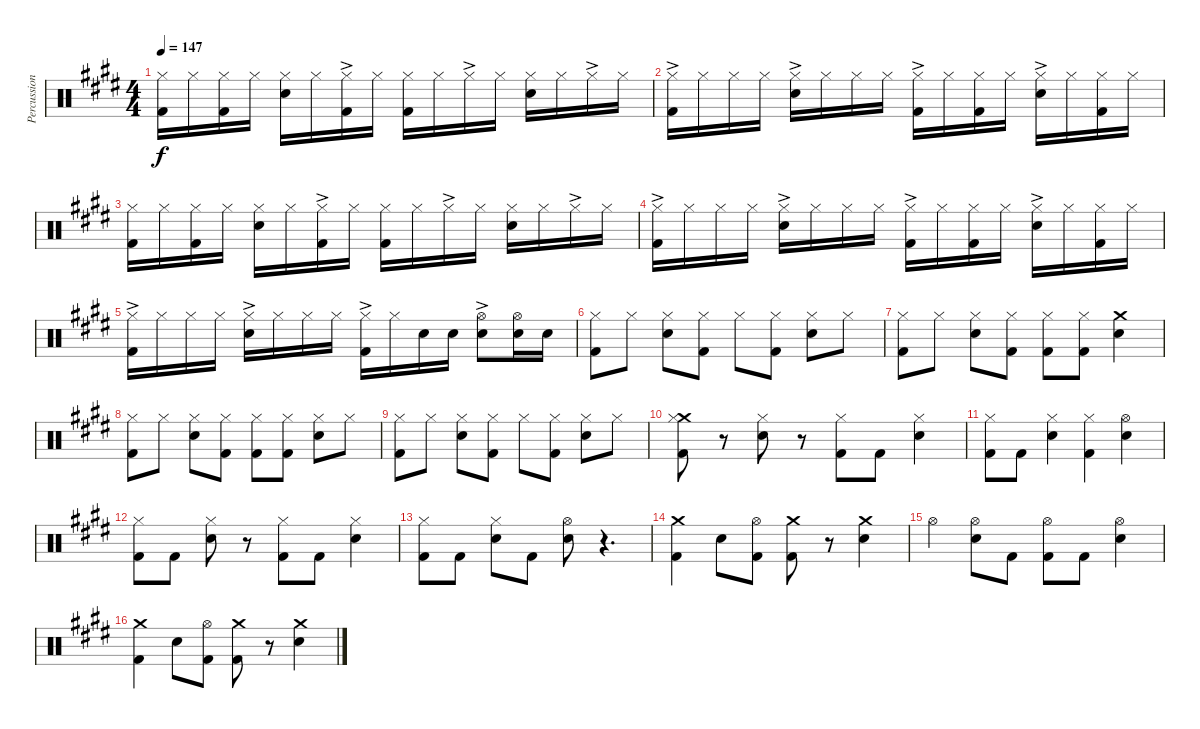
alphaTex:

\track ("Percussion" "Percussion") {instrument percussion}
\staff {score}
\articulation defaults
\ts (4 4)
\tempo 147
\clef neutral
\ks e
("Hi-Hat (closed)" "Kick (hit) 2").16{dy f} "Hi-Hat (closed)".16 ("Hi-Hat (closed)" "Kick (hit) 2").16 "Hi-Hat (closed)".16 ("Hi-Hat (closed)" "Electric Snare (hit)").16 "Hi-Hat (closed)".16 ("Hi-Hat (closed)"{ac} "Kick (hit) 2").16 "Hi-Hat (closed)".16 ("Hi-Hat (closed)" "Kick (hit) 2").16 "Hi-Hat (closed)".16 "Hi-Hat (closed)"{ac}.16 "Hi-Hat (closed)".16 ("Hi-Hat (closed)" "Electric Snare (hit)").16 "Hi-Hat (closed)".16 "Hi-Hat (closed)"{ac}.16 "Hi-Hat (closed)".16 |
("Hi-Hat (closed)"{ac} "Kick (hit) 2").16 "Hi-Hat (closed)".16 "Hi-Hat (closed)".16 "Hi-Hat (closed)".16 ("Hi-Hat (closed)"{ac} "Electric Snare (hit)").16 "Hi-Hat (closed)".16 "Hi-Hat (closed)".16 "Hi-Hat (closed)".16 ("Hi-Hat (closed)"{ac} "Kick (hit) 2").16 "Hi-Hat (closed)".16 ("Hi-Hat (closed)" "Kick (hit) 2").16 "Hi-Hat (closed)".16 ("Hi-Hat (closed)"{ac} "Electric Snare (hit)").16 "Hi-Hat (closed)".16 ("Hi-Hat (closed)" "Kick (hit) 2").16 "Hi-Hat (closed)".16 |
("Hi-Hat (closed)" "Kick (hit) 2").16 "Hi-Hat (closed)".16 ("Hi-Hat (closed)" "Kick (hit) 2").16 "Hi-Hat (closed)".16 ("Hi-Hat (closed)" "Electric Snare (hit)").16 "Hi-Hat (closed)".16 ("Hi-Hat (closed)"{ac} "Kick (hit) 2").16 "Hi-Hat (closed)".16 ("Hi-Hat (closed)" "Kick (hit) 2").16 "Hi-Hat (closed)".16 "Hi-Hat (closed)"{ac}.16 "Hi-Hat (closed)".16 ("Hi-Hat (closed)" "Electric Snare (hit)").16 "Hi-Hat (closed)".16 "Hi-Hat (closed)"{ac}.16 "Hi-Hat (closed)".16 |
("Hi-Hat (closed)"{ac} "Kick (hit) 2").16 "Hi-Hat (closed)".16 "Hi-Hat (closed)".16 "Hi-Hat (closed)".16 ("Hi-Hat (closed)"{ac} "Electric Snare (hit)").16 "Hi-Hat (closed)".16 "Hi-Hat (closed)".16 "Hi-Hat (closed)".16 ("Hi-Hat (closed)"{ac} "Kick (hit) 2").16 "Hi-Hat (closed)".16 ("Hi-Hat (closed)" "Kick (hit) 2").16 "Hi-Hat (closed)".16 ("Hi-Hat (closed)"{ac} "Electric Snare (hit)").16 "Hi-Hat (closed)".16 ("Hi-Hat (closed)" "Kick (hit) 2").16 "Hi-Hat (closed)".16 |
("Hi-Hat (closed)"{ac} "Kick (hit) 2").16 "Hi-Hat (closed)".16 "Hi-Hat (closed)".16 "Hi-Hat (closed)".16 ("Hi-Hat (closed)"{ac} "Electric Snare (hit)").16 "Hi-Hat (closed)".16 "Hi-Hat (closed)".16 "Hi-Hat (closed)".16 ("Hi-Hat (closed)"{ac} "Kick (hit) 2").16 "Hi-Hat (closed)".16 "Electric Snare (hit)".16 "Electric Snare (hit)".16 ("Hi-Hat (open)"{ac} "Electric Snare (hit)").8 ("Hi-Hat (open)" "Electric Snare (hit)").16 "Electric Snare (hit)".16 |
("Hi-Hat (closed)" "Kick (hit) 2").8 "Hi-Hat (closed)".8 ("Hi-Hat (closed)" "Electric Snare (hit)").8 ("Hi-Hat (closed)" "Kick (hit) 2").8 "Hi-Hat (closed)".8 ("Hi-Hat (closed)" "Kick (hit) 2").8 ("Hi-Hat (closed)" "Electric Snare (hit)").8 "Hi-Hat (closed)".8 |
("Hi-Hat (closed)" "Kick (hit) 2").8 "Hi-Hat (closed)".8 ("Hi-Hat (closed)" "Electric Snare (hit)").8 ("Hi-Hat (closed)" "Kick (hit) 2").8 ("Hi-Hat (closed)" "Kick (hit) 2").8 ("Hi-Hat (closed)" "Kick (hit) 2").8 ("Crash medium (hit)" "Electric Snare (hit)").4 |
("Hi-Hat (closed)" "Kick (hit) 2").8 "Hi-Hat (closed)".8 ("Hi-Hat (closed)" "Electric Snare (hit)").8 ("Hi-Hat (closed)" "Kick (hit) 2").8 ("Hi-Hat (closed)" "Kick (hit) 2").8 ("Hi-Hat (closed)" "Kick (hit) 2").8 ("Hi-Hat (closed)" "Electric Snare (hit)").8 "Hi-Hat (closed)".8 |
("Hi-Hat (closed)" "Kick (hit) 2").8 "Hi-Hat (closed)".8 ("Hi-Hat (closed)" "Electric Snare (hit)").8 ("Hi-Hat (closed)" "Kick (hit) 2").8 "Hi-Hat (closed)".8 ("Hi-Hat (closed)" "Kick (hit) 2").8 ("Hi-Hat (closed)" "Electric Snare (hit)").8 "Hi-Hat (closed)".8 |
("Crash medium (hit)" "Hi-Hat (closed)" "Kick (hit) 2").8 r.8 ("Hi-Hat (closed)" "Electric Snare (hit)").8 r.8 ("Hi-Hat (closed)" "Kick (hit) 2").8 "Kick (hit) 2".8 ("Hi-Hat (closed)" "Electric Snare (hit)").4 |
("Hi-Hat (closed)" "Kick (hit) 2").8 "Kick (hit) 2".8 ("Hi-Hat (closed)" "Electric Snare (hit)").4 ("Hi-Hat (closed)" "Kick (hit) 2").4 ("Hi-Hat (open)" "Electric Snare (hit)").4 |
("Hi-Hat (closed)" "Kick (hit) 2").8 "Kick (hit) 2".8 ("Hi-Hat (closed)" "Electric Snare (hit)").8 r.8 ("Hi-Hat (closed)" "Kick (hit) 2").8 "Kick (hit) 2".8 ("Hi-Hat (closed)" "Electric Snare (hit)").4 |
("Hi-Hat (closed)" "Kick (hit) 2").8 "Kick (hit) 2".8 ("Hi-Hat (closed)" "Electric Snare (hit)").8 "Kick (hit) 2".8 ("Hi-Hat (open)" "Electric Snare (hit)").8 r.4{d} |
("Crash medium (hit)" "Kick (hit) 2").4 "Electric Snare (hit)".8 ("Hi-Hat (open)" "Kick (hit) 2").8 ("Crash medium (hit)" "Kick (hit) 2").8 r.8 ("Crash medium (hit)" "Electric Snare (hit)").4 |
"Hi-Hat (open)".4 ("Hi-Hat (open)" "Electric Snare (hit)").8 "Kick (hit) 2".8 ("Hi-Hat (open)" "Kick (hit) 2").8 "Kick (hit) 2".8 ("Hi-Hat (open)" "Electric Snare (hit)").4 |
("Crash medium (hit)" "Kick (hit) 2").4 "Electric Snare (hit)".8 ("Hi-Hat (open)" "Kick (hit) 2").8 ("Crash medium (hit)" "Kick (hit) 2").8 r.8 ("Crash medium (hit)" "Electric Snare (hit)").4
